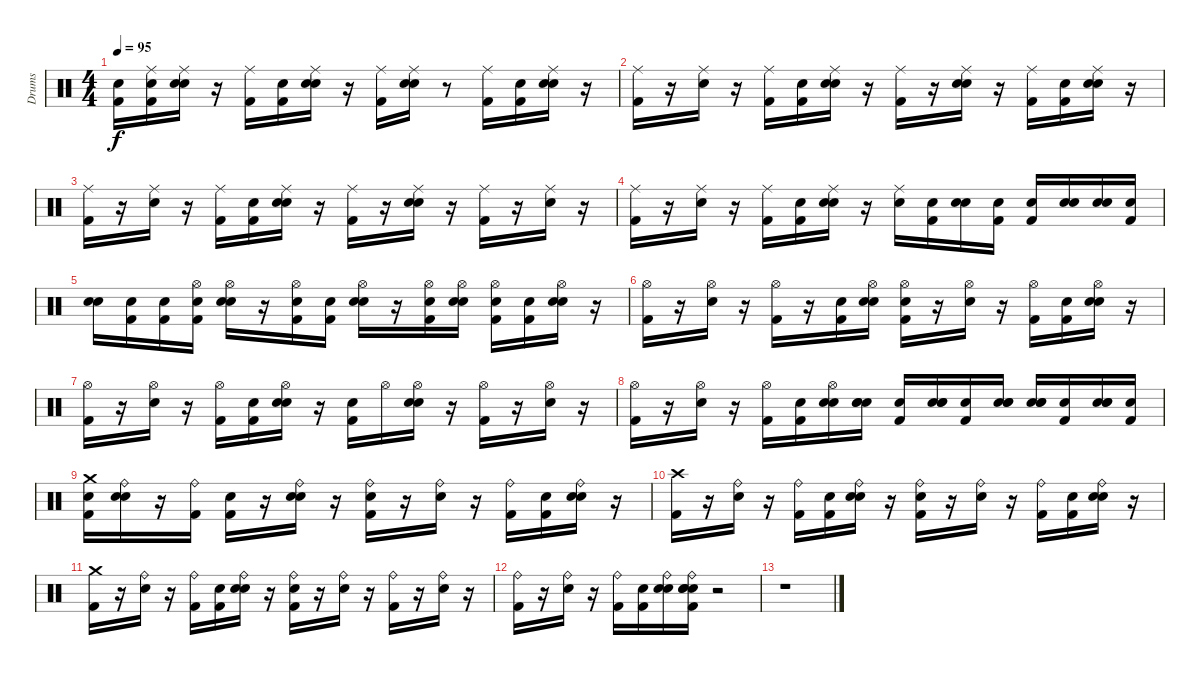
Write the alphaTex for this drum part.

\track ("Drums" "Drums") {instrument percussion}
\staff {score}
\articulation defaults
\ts (4 4)
\tempo 95
\clef neutral
\ks c
("Snare (hit)" "Kick (hit) 2").16{dy f} ("Snare (hit)" "Kick (hit) 2" "Ride (middle)").16 ("Snare (hit)" "Electric Snare (hit)" "Ride (middle)").16 r.16 ("Kick (hit) 2" "Ride (middle)").16 ("Snare (hit)" "Kick (hit) 2").16 ("Snare (hit)" "Electric Snare (hit)" "Ride (middle)").16 r.16 ("Kick (hit) 2" "Ride (middle)").16 ("Snare (hit)" "Electric Snare (hit)" "Ride (middle)").16 r.8 ("Kick (hit) 2" "Ride (middle)").16 ("Snare (hit)" "Kick (hit) 2").16 ("Snare (hit)" "Electric Snare (hit)" "Ride (middle)").16 r.16 |
("Kick (hit) 2" "Ride (middle)").16 r.16 ("Electric Snare (hit)" "Ride (middle)").16 r.16 ("Kick (hit) 2" "Ride (middle)").16 ("Snare (hit)" "Kick (hit) 2").16 ("Snare (hit)" "Electric Snare (hit)" "Ride (middle)").16 r.16 ("Kick (hit) 2" "Ride (middle)").16 r.16 ("Snare (hit)" "Electric Snare (hit)" "Ride (middle)").16 r.16 ("Kick (hit) 2" "Ride (middle)").16 ("Snare (hit)" "Kick (hit) 2").16 ("Snare (hit)" "Electric Snare (hit)" "Ride (middle)").16 r.16 |
("Kick (hit) 2" "Ride (middle)").16 r.16 ("Electric Snare (hit)" "Ride (middle)").16 r.16 ("Kick (hit) 2" "Ride (middle)").16 ("Snare (hit)" "Kick (hit) 2").16 ("Snare (hit)" "Electric Snare (hit)" "Ride (middle)").16 r.16 ("Kick (hit) 2" "Ride (middle)").16 r.16 ("Snare (hit)" "Electric Snare (hit)" "Ride (middle)").16 r.16 ("Kick (hit) 2" "Ride (middle)").16 r.16 ("Electric Snare (hit)" "Ride (middle)").16 r.16 |
("Kick (hit) 2" "Ride (middle)").16 r.16 ("Electric Snare (hit)" "Ride (middle)").16 r.16 ("Kick (hit) 2" "Ride (middle)").16 ("Snare (hit)" "Kick (hit) 2").16 ("Snare (hit)" "Electric Snare (hit)" "Ride (middle)").16 r.16 ("Ride (middle)" "Electric Snare (hit)").16 ("Snare (hit)" "Kick (hit) 2").16 ("Snare (hit)" "Electric Snare (hit)").16 ("Snare (hit)" "Kick (hit) 2").16 ("Snare (hit)" "Kick (hit) 2").16 ("Snare (hit)" "Electric Snare (hit)").16 ("Snare (hit)" "Electric Snare (hit)").16 ("Snare (hit)" "Kick (hit) 2").16 |
("Snare (hit)" "Electric Snare (hit)").16 ("Snare (hit)" "Kick (hit) 2").16 ("Snare (hit)" "Kick (hit) 2").16 ("Snare (hit)" "Kick (hit) 2" "Hi-Hat (open)").16 ("Snare (hit)" "Electric Snare (hit)" "Hi-Hat (open)").16 r.16 ("Snare (hit)" "Kick (hit) 2" "Hi-Hat (open)").16 ("Snare (hit)" "Kick (hit) 2").16 ("Snare (hit)" "Electric Snare (hit)" "Hi-Hat (open)").16 r.16 ("Snare (hit)" "Kick (hit) 2" "Hi-Hat (open)").16 ("Snare (hit)" "Electric Snare (hit)" "Hi-Hat (open)").16 ("Snare (hit)" "Kick (hit) 2" "Hi-Hat (open)").16 ("Snare (hit)" "Kick (hit) 2").16 ("Snare (hit)" "Electric Snare (hit)" "Hi-Hat (open)").16 r.16 |
("Kick (hit) 2" "Hi-Hat (open)").16 r.16 ("Electric Snare (hit)" "Hi-Hat (open)").16 r.16 ("Kick (hit) 2" "Hi-Hat (open)").16 r.16 ("Snare (hit)" "Kick (hit) 2").16 ("Snare (hit)" "Electric Snare (hit)" "Hi-Hat (open)").16 ("Snare (hit)" "Kick (hit) 2" "Hi-Hat (open)").16 r.16 ("Electric Snare (hit)" "Hi-Hat (open)").16 r.16 ("Hi-Hat (open)" "Kick (hit) 2").16 ("Snare (hit)" "Kick (hit) 2").16 ("Snare (hit)" "Electric Snare (hit)" "Hi-Hat (open)").16 r.16 |
("Hi-Hat (open)" "Kick (hit) 2").16 r.16 ("Hi-Hat (open)" "Electric Snare (hit)").16 r.16 ("Hi-Hat (open)" "Kick (hit) 2").16 ("Snare (hit)" "Kick (hit) 2").16 ("Snare (hit)" "Hi-Hat (open)" "Electric Snare (hit)").16 r.16 ("Snare (hit)" "Kick (hit) 2").16 "Hi-Hat (open)".16 ("Snare (hit)" "Electric Snare (hit)" "Hi-Hat (open)").16 r.16 ("Kick (hit) 2" "Hi-Hat (open)").16 r.16 ("Electric Snare (hit)" "Hi-Hat (open)").16 r.16 |
("Kick (hit) 2" "Hi-Hat (open)").16 r.16 ("Hi-Hat (open)" "Electric Snare (hit)").16 r.16 ("Hi-Hat (open)" "Kick (hit) 2").16 ("Snare (hit)" "Kick (hit) 2").16 ("Snare (hit)" "Electric Snare (hit)" "Hi-Hat (open)").16 ("Snare (hit)" "Snare (hit) 2" "Electric Snare (hit)").16 ("Snare (hit)" "Kick (hit) 2").16 ("Snare (hit)" "Snare (hit) 2" "Electric Snare (hit)").16 ("Snare (hit)" "Kick (hit) 2").16 ("Snare (hit)" "Snare (hit) 2" "Electric Snare (hit)").16 ("Snare (hit)" "Snare (hit) 2" "Electric Snare (hit)").16 ("Snare (hit)" "Kick (hit) 2").16 ("Snare (hit)" "Snare (hit) 2" "Electric Snare (hit)").16 ("Snare (hit)" "Kick (hit) 2").16 |
("Snare (hit)" "Kick (hit) 2" "Crash medium (hit)").16 ("Snare (hit)" "Ride (bell)" "Electric Snare (hit)").16 r.16 ("Ride (bell)" "Kick (hit) 2").16 ("Snare (hit)" "Kick (hit) 2").16 r.16 ("Snare (hit)" "Ride (bell)" "Electric Snare (hit)").16 r.16 ("Snare (hit)" "Ride (bell)" "Kick (hit) 2").16 r.16 ("Electric Snare (hit)" "Ride (bell)").16 r.16 ("Kick (hit) 2" "Ride (bell)").16 ("Snare (hit)" "Kick (hit) 2").16 ("Snare (hit)" "Ride (bell)" "Electric Snare (hit)").16 r.16 |
("Kick (hit) 2" "Crash high (hit)").16 r.16 ("Ride (bell)" "Electric Snare (hit)").16 r.16 ("Ride (bell)" "Kick (hit) 2").16 ("Snare (hit)" "Kick (hit) 2").16 ("Snare (hit)" "Ride (bell)" "Electric Snare (hit)").16 r.16 ("Snare (hit)" "Ride (bell)" "Kick (hit) 2").16 r.16 ("Ride (bell)" "Electric Snare (hit)").16 r.16 ("Ride (bell)" "Kick (hit) 2").16 ("Snare (hit)" "Kick (hit) 2").16 ("Snare (hit)" "Electric Snare (hit)" "Ride (bell)").16 r.16 |
("Kick (hit) 2" "Crash medium (hit)").16 r.16 ("Ride (bell)" "Electric Snare (hit)").16 r.16 ("Kick (hit) 2" "Ride (bell)").16 ("Snare (hit)" "Kick (hit) 2").16 ("Snare (hit)" "Ride (bell)" "Electric Snare (hit)").16 r.16 ("Snare (hit)" "Ride (bell)" "Kick (hit) 2").16 r.16 ("Ride (bell)" "Electric Snare (hit)").16 r.16 ("Ride (bell)" "Kick (hit) 2").16 r.16 ("Ride (bell)" "Electric Snare (hit)").16 r.16 |
("Kick (hit) 2" "Ride (bell)").16 r.16 ("Electric Snare (hit)" "Ride (bell)").16 r.16 ("Kick (hit) 2" "Ride (bell)").16 ("Snare (hit)" "Kick (hit) 2").16 ("Snare (hit)" "Ride (bell)" "Electric Snare (hit)").16 ("Snare (hit)" "Snare (hit) 2" "Kick (hit) 2" "Ride (bell)" "Electric Snare (hit)").16 r.2 |
r.1
